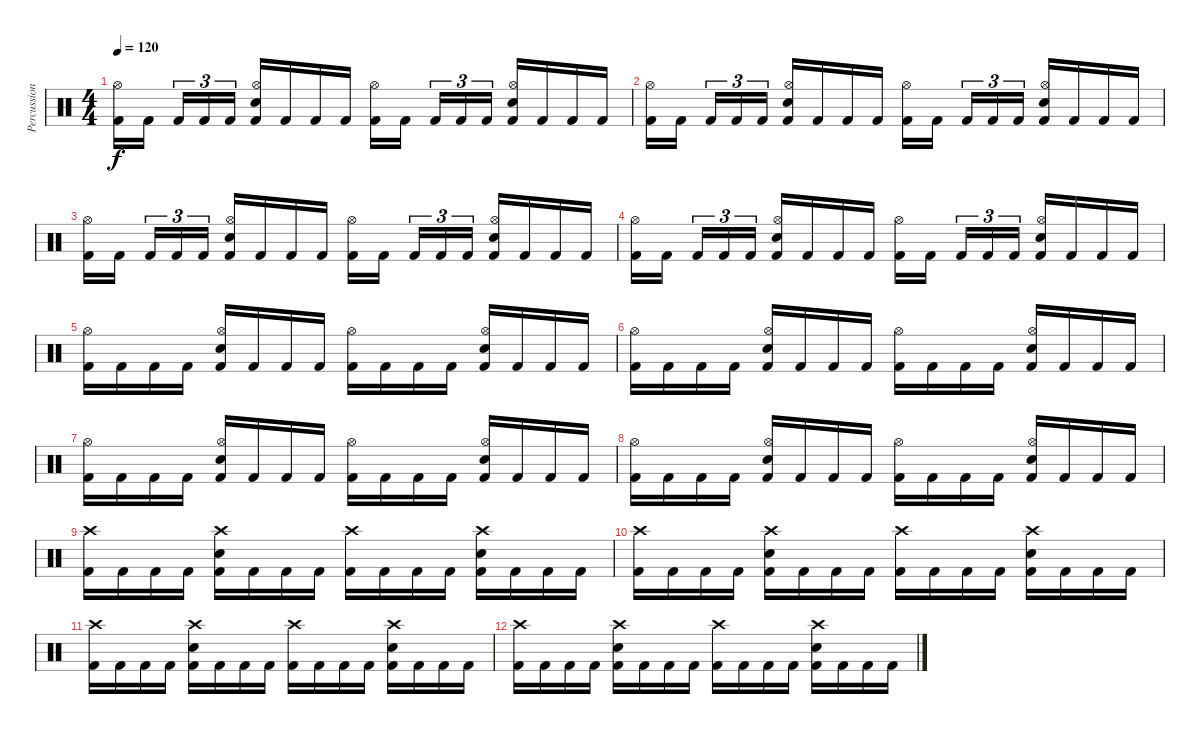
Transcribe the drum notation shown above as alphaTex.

\track ("Percussion" "Percussion") {instrument percussion}
\staff {score}
\articulation defaults
\ts (4 4)
\tempo 120
\clef neutral
\ks c
("Kick (hit) 2" "Hi-Hat (open)").16{dy f} "Kick (hit) 2".16{beam splitsecondary} "Kick (hit) 2".16{tu (3 2)} "Kick (hit) 2".16{tu (3 2)} "Kick (hit) 2".16{tu (3 2)} ("Kick (hit) 2" "Hi-Hat (open)" "Electric Snare (hit)").16 "Kick (hit) 2".16 "Kick (hit) 2".16 "Kick (hit) 2".16 ("Kick (hit) 2" "Hi-Hat (open)").16 "Kick (hit) 2".16{beam splitsecondary} "Kick (hit) 2".16{tu (3 2)} "Kick (hit) 2".16{tu (3 2)} "Kick (hit) 2".16{tu (3 2)} ("Kick (hit) 2" "Hi-Hat (open)" "Electric Snare (hit)").16 "Kick (hit) 2".16 "Kick (hit) 2".16 "Kick (hit) 2".16 |
("Kick (hit) 2" "Hi-Hat (open)").16 "Kick (hit) 2".16{beam splitsecondary} "Kick (hit) 2".16{tu (3 2)} "Kick (hit) 2".16{tu (3 2)} "Kick (hit) 2".16{tu (3 2)} ("Kick (hit) 2" "Hi-Hat (open)" "Electric Snare (hit)").16 "Kick (hit) 2".16 "Kick (hit) 2".16 "Kick (hit) 2".16 ("Kick (hit) 2" "Hi-Hat (open)").16 "Kick (hit) 2".16{beam splitsecondary} "Kick (hit) 2".16{tu (3 2)} "Kick (hit) 2".16{tu (3 2)} "Kick (hit) 2".16{tu (3 2)} ("Kick (hit) 2" "Hi-Hat (open)" "Electric Snare (hit)").16 "Kick (hit) 2".16 "Kick (hit) 2".16 "Kick (hit) 2".16 |
("Kick (hit) 2" "Hi-Hat (open)").16 "Kick (hit) 2".16{beam splitsecondary} "Kick (hit) 2".16{tu (3 2)} "Kick (hit) 2".16{tu (3 2)} "Kick (hit) 2".16{tu (3 2)} ("Kick (hit) 2" "Hi-Hat (open)" "Electric Snare (hit)").16 "Kick (hit) 2".16 "Kick (hit) 2".16 "Kick (hit) 2".16 ("Kick (hit) 2" "Hi-Hat (open)").16 "Kick (hit) 2".16{beam splitsecondary} "Kick (hit) 2".16{tu (3 2)} "Kick (hit) 2".16{tu (3 2)} "Kick (hit) 2".16{tu (3 2)} ("Kick (hit) 2" "Hi-Hat (open)" "Electric Snare (hit)").16 "Kick (hit) 2".16 "Kick (hit) 2".16 "Kick (hit) 2".16 |
("Kick (hit) 2" "Hi-Hat (open)").16 "Kick (hit) 2".16{beam splitsecondary} "Kick (hit) 2".16{tu (3 2)} "Kick (hit) 2".16{tu (3 2)} "Kick (hit) 2".16{tu (3 2)} ("Kick (hit) 2" "Hi-Hat (open)" "Electric Snare (hit)").16 "Kick (hit) 2".16 "Kick (hit) 2".16 "Kick (hit) 2".16 ("Kick (hit) 2" "Hi-Hat (open)").16 "Kick (hit) 2".16{beam splitsecondary} "Kick (hit) 2".16{tu (3 2)} "Kick (hit) 2".16{tu (3 2)} "Kick (hit) 2".16{tu (3 2)} ("Kick (hit) 2" "Hi-Hat (open)" "Electric Snare (hit)").16 "Kick (hit) 2".16 "Kick (hit) 2".16 "Kick (hit) 2".16 |
("Kick (hit) 2" "Hi-Hat (open)").16 "Kick (hit) 2".16 "Kick (hit) 2".16 "Kick (hit) 2".16 ("Kick (hit) 2" "Hi-Hat (open)" "Electric Snare (hit)").16 "Kick (hit) 2".16 "Kick (hit) 2".16 "Kick (hit) 2".16 ("Kick (hit) 2" "Hi-Hat (open)").16 "Kick (hit) 2".16 "Kick (hit) 2".16 "Kick (hit) 2".16 ("Kick (hit) 2" "Hi-Hat (open)" "Electric Snare (hit)").16 "Kick (hit) 2".16 "Kick (hit) 2".16 "Kick (hit) 2".16 |
("Kick (hit) 2" "Hi-Hat (open)").16 "Kick (hit) 2".16 "Kick (hit) 2".16 "Kick (hit) 2".16 ("Kick (hit) 2" "Hi-Hat (open)" "Electric Snare (hit)").16 "Kick (hit) 2".16 "Kick (hit) 2".16 "Kick (hit) 2".16 ("Kick (hit) 2" "Hi-Hat (open)").16 "Kick (hit) 2".16 "Kick (hit) 2".16 "Kick (hit) 2".16 ("Kick (hit) 2" "Hi-Hat (open)" "Electric Snare (hit)").16 "Kick (hit) 2".16 "Kick (hit) 2".16 "Kick (hit) 2".16 |
("Kick (hit) 2" "Hi-Hat (open)").16 "Kick (hit) 2".16 "Kick (hit) 2".16 "Kick (hit) 2".16 ("Kick (hit) 2" "Hi-Hat (open)" "Electric Snare (hit)").16 "Kick (hit) 2".16 "Kick (hit) 2".16 "Kick (hit) 2".16 ("Kick (hit) 2" "Hi-Hat (open)").16 "Kick (hit) 2".16 "Kick (hit) 2".16 "Kick (hit) 2".16 ("Kick (hit) 2" "Hi-Hat (open)" "Electric Snare (hit)").16 "Kick (hit) 2".16 "Kick (hit) 2".16 "Kick (hit) 2".16 |
("Kick (hit) 2" "Hi-Hat (open)").16 "Kick (hit) 2".16 "Kick (hit) 2".16 "Kick (hit) 2".16 ("Kick (hit) 2" "Hi-Hat (open)" "Electric Snare (hit)").16 "Kick (hit) 2".16 "Kick (hit) 2".16 "Kick (hit) 2".16 ("Kick (hit) 2" "Hi-Hat (open)").16 "Kick (hit) 2".16 "Kick (hit) 2".16 "Kick (hit) 2".16 ("Kick (hit) 2" "Hi-Hat (open)" "Electric Snare (hit)").16 "Kick (hit) 2".16 "Kick (hit) 2".16 "Kick (hit) 2".16 |
("Kick (hit) 2" "Crash high (hit)").16 "Kick (hit) 2".16 "Kick (hit) 2".16 "Kick (hit) 2".16 ("Kick (hit) 2" "Crash high (hit)" "Electric Snare (hit)").16 "Kick (hit) 2".16 "Kick (hit) 2".16 "Kick (hit) 2".16 ("Kick (hit) 2" "Crash high (hit)").16 "Kick (hit) 2".16 "Kick (hit) 2".16 "Kick (hit) 2".16 ("Kick (hit) 2" "Crash high (hit)" "Electric Snare (hit)").16 "Kick (hit) 2".16 "Kick (hit) 2".16 "Kick (hit) 2".16 |
("Kick (hit) 2" "Crash high (hit)").16 "Kick (hit) 2".16 "Kick (hit) 2".16 "Kick (hit) 2".16 ("Kick (hit) 2" "Crash high (hit)" "Electric Snare (hit)").16 "Kick (hit) 2".16 "Kick (hit) 2".16 "Kick (hit) 2".16 ("Kick (hit) 2" "Crash high (hit)").16 "Kick (hit) 2".16 "Kick (hit) 2".16 "Kick (hit) 2".16 ("Kick (hit) 2" "Crash high (hit)" "Electric Snare (hit)").16 "Kick (hit) 2".16 "Kick (hit) 2".16 "Kick (hit) 2".16 |
("Kick (hit) 2" "Crash high (hit)").16 "Kick (hit) 2".16 "Kick (hit) 2".16 "Kick (hit) 2".16 ("Kick (hit) 2" "Crash high (hit)" "Electric Snare (hit)").16 "Kick (hit) 2".16 "Kick (hit) 2".16 "Kick (hit) 2".16 ("Kick (hit) 2" "Crash high (hit)").16 "Kick (hit) 2".16 "Kick (hit) 2".16 "Kick (hit) 2".16 ("Kick (hit) 2" "Crash high (hit)" "Electric Snare (hit)").16 "Kick (hit) 2".16 "Kick (hit) 2".16 "Kick (hit) 2".16 |
("Kick (hit) 2" "Crash high (hit)").16 "Kick (hit) 2".16 "Kick (hit) 2".16 "Kick (hit) 2".16 ("Kick (hit) 2" "Crash high (hit)" "Electric Snare (hit)").16 "Kick (hit) 2".16 "Kick (hit) 2".16 "Kick (hit) 2".16 ("Kick (hit) 2" "Crash high (hit)").16 "Kick (hit) 2".16 "Kick (hit) 2".16 "Kick (hit) 2".16 ("Kick (hit) 2" "Crash high (hit)" "Electric Snare (hit)").16 "Kick (hit) 2".16 "Kick (hit) 2".16 "Kick (hit) 2".16
